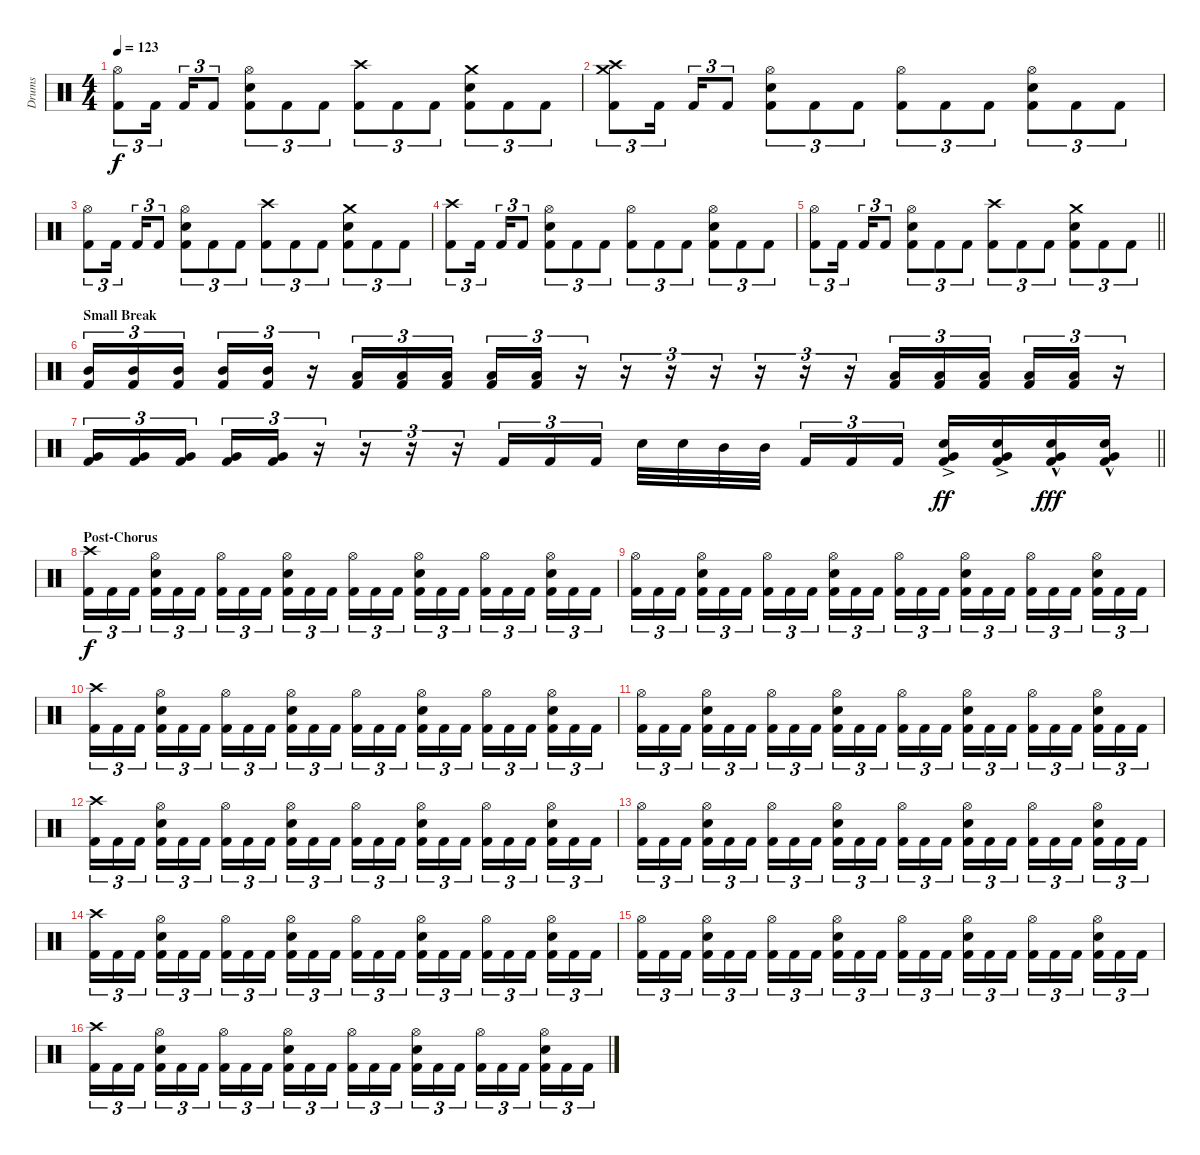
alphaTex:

\track ("Drums" "Drums") {instrument percussion}
\staff {score}
\articulation defaults
\ts (4 4)
\tempo 123
\clef neutral
\ks c
("Hi-Hat (open)" "Kick (hit) 2").8{tu (3 2) dy f} "Kick (hit) 2".16{tu (3 2) beam splitsecondary} "Kick (hit) 2".16{tu (3 2)} "Kick (hit) 2".8{tu (3 2)} ("Hi-Hat (open)" "Snare (hit) 2" "Kick (hit) 2").8{tu (3 2)} "Kick (hit) 2".8{tu (3 2)} "Kick (hit) 2".8{tu (3 2)} ("Crash high (hit)" "Kick (hit) 2").8{tu (3 2)} "Kick (hit) 2".8{tu (3 2)} "Kick (hit) 2".8{tu (3 2)} ("Crash medium (hit)" "Snare (hit) 2" "Kick (hit) 2").8{tu (3 2)} "Kick (hit) 2".8{tu (3 2)} "Kick (hit) 2".8{tu (3 2)} |
("Crash high (hit)" "Crash medium (hit)" "Kick (hit) 2").8{tu (3 2)} "Kick (hit) 2".16{tu (3 2) beam splitsecondary} "Kick (hit) 2".16{tu (3 2)} "Kick (hit) 2".8{tu (3 2)} ("Hi-Hat (open)" "Snare (hit) 2" "Kick (hit) 2").8{tu (3 2)} "Kick (hit) 2".8{tu (3 2)} "Kick (hit) 2".8{tu (3 2)} ("Hi-Hat (open)" "Kick (hit) 2").8{tu (3 2)} "Kick (hit) 2".8{tu (3 2)} "Kick (hit) 2".8{tu (3 2)} ("Hi-Hat (open)" "Snare (hit) 2" "Kick (hit) 2").8{tu (3 2)} "Kick (hit) 2".8{tu (3 2)} "Kick (hit) 2".8{tu (3 2)} |
("Hi-Hat (open)" "Kick (hit) 2").8{tu (3 2)} "Kick (hit) 2".16{tu (3 2) beam splitsecondary} "Kick (hit) 2".16{tu (3 2)} "Kick (hit) 2".8{tu (3 2)} ("Hi-Hat (open)" "Snare (hit) 2" "Kick (hit) 2").8{tu (3 2)} "Kick (hit) 2".8{tu (3 2)} "Kick (hit) 2".8{tu (3 2)} ("Crash high (hit)" "Kick (hit) 2").8{tu (3 2)} "Kick (hit) 2".8{tu (3 2)} "Kick (hit) 2".8{tu (3 2)} ("Crash medium (hit)" "Snare (hit) 2" "Kick (hit) 2").8{tu (3 2)} "Kick (hit) 2".8{tu (3 2)} "Kick (hit) 2".8{tu (3 2)} |
("Crash high (hit)" "Kick (hit) 2").8{tu (3 2)} "Kick (hit) 2".16{tu (3 2) beam splitsecondary} "Kick (hit) 2".16{tu (3 2)} "Kick (hit) 2".8{tu (3 2)} ("Hi-Hat (open)" "Snare (hit) 2" "Kick (hit) 2").8{tu (3 2)} "Kick (hit) 2".8{tu (3 2)} "Kick (hit) 2".8{tu (3 2)} ("Hi-Hat (open)" "Kick (hit) 2").8{tu (3 2)} "Kick (hit) 2".8{tu (3 2)} "Kick (hit) 2".8{tu (3 2)} ("Hi-Hat (open)" "Snare (hit) 2" "Kick (hit) 2").8{tu (3 2)} "Kick (hit) 2".8{tu (3 2)} "Kick (hit) 2".8{tu (3 2)} |
\barLineRight lightlight
("Hi-Hat (open)" "Kick (hit) 2").8{tu (3 2)} "Kick (hit) 2".16{tu (3 2) beam splitsecondary} "Kick (hit) 2".16{tu (3 2)} "Kick (hit) 2".8{tu (3 2)} ("Hi-Hat (open)" "Snare (hit) 2" "Kick (hit) 2").8{tu (3 2)} "Kick (hit) 2".8{tu (3 2)} "Kick (hit) 2".8{tu (3 2)} ("Crash high (hit)" "Kick (hit) 2").8{tu (3 2)} "Kick (hit) 2".8{tu (3 2)} "Kick (hit) 2".8{tu (3 2)} ("Crash medium (hit)" "Snare (hit) 2" "Kick (hit) 2").8{tu (3 2)} "Kick (hit) 2".8{tu (3 2)} "Kick (hit) 2".8{tu (3 2)} |
\section ("" "Small Break")
("Mid Tom (hit)" "Kick (hit) 2").16{tu (3 2)} ("Mid Tom (hit)" "Kick (hit) 2").16{tu (3 2)} ("Mid Tom (hit)" "Kick (hit) 2").16{tu (3 2) beam splitsecondary} ("Mid Tom (hit)" "Kick (hit) 2").16{tu (3 2)} ("Mid Tom (hit)" "Kick (hit) 2").16{tu (3 2)} r.16{tu (3 2)} ("Low Tom (hit)" "Kick (hit) 2").16{tu (3 2)} ("Low Tom (hit)" "Kick (hit) 2").16{tu (3 2)} ("Low Tom (hit)" "Kick (hit) 2").16{tu (3 2) beam splitsecondary} ("Low Tom (hit)" "Kick (hit) 2").16{tu (3 2)} ("Low Tom (hit)" "Kick (hit) 2").16{tu (3 2)} r.16{tu (3 2)} r.16{tu (3 2)} r.16{tu (3 2)} r.16{tu (3 2)} r.16{tu (3 2)} r.16{tu (3 2)} r.16{tu (3 2)} ("Low Tom (hit)" "Kick (hit) 2").16{tu (3 2)} ("Low Tom (hit)" "Kick (hit) 2").16{tu (3 2)} ("Low Tom (hit)" "Kick (hit) 2").16{tu (3 2) beam splitsecondary} ("Low Tom (hit)" "Kick (hit) 2").16{tu (3 2)} ("Low Tom (hit)" "Kick (hit) 2").16{tu (3 2)} r.16{tu (3 2)} |
\barLineRight lightlight
("Very Low Tom (hit)" "Kick (hit) 2").16{tu (3 2)} ("Very Low Tom (hit)" "Kick (hit) 2").16{tu (3 2)} ("Very Low Tom (hit)" "Kick (hit) 2").16{tu (3 2) beam splitsecondary} ("Very Low Tom (hit)" "Kick (hit) 2").16{tu (3 2)} ("Very Low Tom (hit)" "Kick (hit) 2").16{tu (3 2)} r.16{tu (3 2)} r.16{tu (3 2)} r.16{tu (3 2)} r.16{tu (3 2)} "Kick (hit) 2".16{tu (3 2)} "Kick (hit) 2".16{tu (3 2)} "Kick (hit) 2".16{tu (3 2)} "Snare (hit) 2".32 "Snare (hit) 2".32 "Mid Tom (hit)".32 "Mid Tom (hit)".32{beam splitsecondary} "Kick (hit) 2".16{tu (3 2)} "Kick (hit) 2".16{tu (3 2)} "Kick (hit) 2".16{tu (3 2)} ("Very Low Tom (hit)"{ac} "Snare (hit) 2"{ac} "Kick (hit) 2").16{dy ff} ("Very Low Tom (hit)"{ac} "Snare (hit) 2"{ac} "Kick (hit) 2").16 ("Very Low Tom (hit)"{hac} "Snare (hit) 2"{hac} "Kick (hit) 2").16{dy fff} ("Very Low Tom (hit)"{hac} "Snare (hit) 2"{hac} "Kick (hit) 2").16 |
\section ("" "Post-Chorus")
("Crash high (hit)" "Kick (hit) 2").16{tu (3 2) dy f} "Kick (hit) 2".16{tu (3 2)} "Kick (hit) 2".16{tu (3 2) beam splitsecondary} ("Hi-Hat (open)" "Snare (hit) 2" "Kick (hit) 2").16{tu (3 2)} "Kick (hit) 2".16{tu (3 2)} "Kick (hit) 2".16{tu (3 2)} ("Hi-Hat (open)" "Kick (hit) 2").16{tu (3 2)} "Kick (hit) 2".16{tu (3 2)} "Kick (hit) 2".16{tu (3 2) beam splitsecondary} ("Hi-Hat (open)" "Snare (hit) 2" "Kick (hit) 2").16{tu (3 2)} "Kick (hit) 2".16{tu (3 2)} "Kick (hit) 2".16{tu (3 2)} ("Hi-Hat (open)" "Kick (hit) 2").16{tu (3 2)} "Kick (hit) 2".16{tu (3 2)} "Kick (hit) 2".16{tu (3 2) beam splitsecondary} ("Hi-Hat (open)" "Snare (hit) 2" "Kick (hit) 2").16{tu (3 2)} "Kick (hit) 2".16{tu (3 2)} "Kick (hit) 2".16{tu (3 2)} ("Hi-Hat (open)" "Kick (hit) 2").16{tu (3 2)} "Kick (hit) 2".16{tu (3 2)} "Kick (hit) 2".16{tu (3 2) beam splitsecondary} ("Hi-Hat (open)" "Snare (hit) 2" "Kick (hit) 2").16{tu (3 2)} "Kick (hit) 2".16{tu (3 2)} "Kick (hit) 2".16{tu (3 2)} |
("Hi-Hat (open)" "Kick (hit) 2").16{tu (3 2)} "Kick (hit) 2".16{tu (3 2)} "Kick (hit) 2".16{tu (3 2) beam splitsecondary} ("Hi-Hat (open)" "Snare (hit) 2" "Kick (hit) 2").16{tu (3 2)} "Kick (hit) 2".16{tu (3 2)} "Kick (hit) 2".16{tu (3 2)} ("Hi-Hat (open)" "Kick (hit) 2").16{tu (3 2)} "Kick (hit) 2".16{tu (3 2)} "Kick (hit) 2".16{tu (3 2) beam splitsecondary} ("Hi-Hat (open)" "Snare (hit) 2" "Kick (hit) 2").16{tu (3 2)} "Kick (hit) 2".16{tu (3 2)} "Kick (hit) 2".16{tu (3 2)} ("Hi-Hat (open)" "Kick (hit) 2").16{tu (3 2)} "Kick (hit) 2".16{tu (3 2)} "Kick (hit) 2".16{tu (3 2) beam splitsecondary} ("Hi-Hat (open)" "Snare (hit) 2" "Kick (hit) 2").16{tu (3 2)} "Kick (hit) 2".16{tu (3 2)} "Kick (hit) 2".16{tu (3 2)} ("Hi-Hat (open)" "Kick (hit) 2").16{tu (3 2)} "Kick (hit) 2".16{tu (3 2)} "Kick (hit) 2".16{tu (3 2) beam splitsecondary} ("Hi-Hat (open)" "Snare (hit) 2" "Kick (hit) 2").16{tu (3 2)} "Kick (hit) 2".16{tu (3 2)} "Kick (hit) 2".16{tu (3 2)} |
("Crash high (hit)" "Kick (hit) 2").16{tu (3 2)} "Kick (hit) 2".16{tu (3 2)} "Kick (hit) 2".16{tu (3 2) beam splitsecondary} ("Hi-Hat (open)" "Snare (hit) 2" "Kick (hit) 2").16{tu (3 2)} "Kick (hit) 2".16{tu (3 2)} "Kick (hit) 2".16{tu (3 2)} ("Hi-Hat (open)" "Kick (hit) 2").16{tu (3 2)} "Kick (hit) 2".16{tu (3 2)} "Kick (hit) 2".16{tu (3 2) beam splitsecondary} ("Hi-Hat (open)" "Snare (hit) 2" "Kick (hit) 2").16{tu (3 2)} "Kick (hit) 2".16{tu (3 2)} "Kick (hit) 2".16{tu (3 2)} ("Hi-Hat (open)" "Kick (hit) 2").16{tu (3 2)} "Kick (hit) 2".16{tu (3 2)} "Kick (hit) 2".16{tu (3 2) beam splitsecondary} ("Hi-Hat (open)" "Snare (hit) 2" "Kick (hit) 2").16{tu (3 2)} "Kick (hit) 2".16{tu (3 2)} "Kick (hit) 2".16{tu (3 2)} ("Hi-Hat (open)" "Kick (hit) 2").16{tu (3 2)} "Kick (hit) 2".16{tu (3 2)} "Kick (hit) 2".16{tu (3 2) beam splitsecondary} ("Hi-Hat (open)" "Snare (hit) 2" "Kick (hit) 2").16{tu (3 2)} "Kick (hit) 2".16{tu (3 2)} "Kick (hit) 2".16{tu (3 2)} |
("Hi-Hat (open)" "Kick (hit) 2").16{tu (3 2)} "Kick (hit) 2".16{tu (3 2)} "Kick (hit) 2".16{tu (3 2) beam splitsecondary} ("Hi-Hat (open)" "Snare (hit) 2" "Kick (hit) 2").16{tu (3 2)} "Kick (hit) 2".16{tu (3 2)} "Kick (hit) 2".16{tu (3 2)} ("Hi-Hat (open)" "Kick (hit) 2").16{tu (3 2)} "Kick (hit) 2".16{tu (3 2)} "Kick (hit) 2".16{tu (3 2) beam splitsecondary} ("Hi-Hat (open)" "Snare (hit) 2" "Kick (hit) 2").16{tu (3 2)} "Kick (hit) 2".16{tu (3 2)} "Kick (hit) 2".16{tu (3 2)} ("Hi-Hat (open)" "Kick (hit) 2").16{tu (3 2)} "Kick (hit) 2".16{tu (3 2)} "Kick (hit) 2".16{tu (3 2) beam splitsecondary} ("Hi-Hat (open)" "Snare (hit) 2" "Kick (hit) 2").16{tu (3 2)} "Kick (hit) 2".16{tu (3 2)} "Kick (hit) 2".16{tu (3 2)} ("Hi-Hat (open)" "Kick (hit) 2").16{tu (3 2)} "Kick (hit) 2".16{tu (3 2)} "Kick (hit) 2".16{tu (3 2) beam splitsecondary} ("Hi-Hat (open)" "Snare (hit) 2" "Kick (hit) 2").16{tu (3 2)} "Kick (hit) 2".16{tu (3 2)} "Kick (hit) 2".16{tu (3 2)} |
("Crash high (hit)" "Kick (hit) 2").16{tu (3 2)} "Kick (hit) 2".16{tu (3 2)} "Kick (hit) 2".16{tu (3 2) beam splitsecondary} ("Hi-Hat (open)" "Snare (hit) 2" "Kick (hit) 2").16{tu (3 2)} "Kick (hit) 2".16{tu (3 2)} "Kick (hit) 2".16{tu (3 2)} ("Hi-Hat (open)" "Kick (hit) 2").16{tu (3 2)} "Kick (hit) 2".16{tu (3 2)} "Kick (hit) 2".16{tu (3 2) beam splitsecondary} ("Hi-Hat (open)" "Snare (hit) 2" "Kick (hit) 2").16{tu (3 2)} "Kick (hit) 2".16{tu (3 2)} "Kick (hit) 2".16{tu (3 2)} ("Hi-Hat (open)" "Kick (hit) 2").16{tu (3 2)} "Kick (hit) 2".16{tu (3 2)} "Kick (hit) 2".16{tu (3 2) beam splitsecondary} ("Hi-Hat (open)" "Snare (hit) 2" "Kick (hit) 2").16{tu (3 2)} "Kick (hit) 2".16{tu (3 2)} "Kick (hit) 2".16{tu (3 2)} ("Hi-Hat (open)" "Kick (hit) 2").16{tu (3 2)} "Kick (hit) 2".16{tu (3 2)} "Kick (hit) 2".16{tu (3 2) beam splitsecondary} ("Hi-Hat (open)" "Snare (hit) 2" "Kick (hit) 2").16{tu (3 2)} "Kick (hit) 2".16{tu (3 2)} "Kick (hit) 2".16{tu (3 2)} |
("Hi-Hat (open)" "Kick (hit) 2").16{tu (3 2)} "Kick (hit) 2".16{tu (3 2)} "Kick (hit) 2".16{tu (3 2) beam splitsecondary} ("Hi-Hat (open)" "Snare (hit) 2" "Kick (hit) 2").16{tu (3 2)} "Kick (hit) 2".16{tu (3 2)} "Kick (hit) 2".16{tu (3 2)} ("Hi-Hat (open)" "Kick (hit) 2").16{tu (3 2)} "Kick (hit) 2".16{tu (3 2)} "Kick (hit) 2".16{tu (3 2) beam splitsecondary} ("Hi-Hat (open)" "Snare (hit) 2" "Kick (hit) 2").16{tu (3 2)} "Kick (hit) 2".16{tu (3 2)} "Kick (hit) 2".16{tu (3 2)} ("Hi-Hat (open)" "Kick (hit) 2").16{tu (3 2)} "Kick (hit) 2".16{tu (3 2)} "Kick (hit) 2".16{tu (3 2) beam splitsecondary} ("Hi-Hat (open)" "Snare (hit) 2" "Kick (hit) 2").16{tu (3 2)} "Kick (hit) 2".16{tu (3 2)} "Kick (hit) 2".16{tu (3 2)} ("Hi-Hat (open)" "Kick (hit) 2").16{tu (3 2)} "Kick (hit) 2".16{tu (3 2)} "Kick (hit) 2".16{tu (3 2) beam splitsecondary} ("Hi-Hat (open)" "Snare (hit) 2" "Kick (hit) 2").16{tu (3 2)} "Kick (hit) 2".16{tu (3 2)} "Kick (hit) 2".16{tu (3 2)} |
("Crash high (hit)" "Kick (hit) 2").16{tu (3 2)} "Kick (hit) 2".16{tu (3 2)} "Kick (hit) 2".16{tu (3 2) beam splitsecondary} ("Hi-Hat (open)" "Snare (hit) 2" "Kick (hit) 2").16{tu (3 2)} "Kick (hit) 2".16{tu (3 2)} "Kick (hit) 2".16{tu (3 2)} ("Hi-Hat (open)" "Kick (hit) 2").16{tu (3 2)} "Kick (hit) 2".16{tu (3 2)} "Kick (hit) 2".16{tu (3 2) beam splitsecondary} ("Hi-Hat (open)" "Snare (hit) 2" "Kick (hit) 2").16{tu (3 2)} "Kick (hit) 2".16{tu (3 2)} "Kick (hit) 2".16{tu (3 2)} ("Hi-Hat (open)" "Kick (hit) 2").16{tu (3 2)} "Kick (hit) 2".16{tu (3 2)} "Kick (hit) 2".16{tu (3 2) beam splitsecondary} ("Hi-Hat (open)" "Snare (hit) 2" "Kick (hit) 2").16{tu (3 2)} "Kick (hit) 2".16{tu (3 2)} "Kick (hit) 2".16{tu (3 2)} ("Hi-Hat (open)" "Kick (hit) 2").16{tu (3 2)} "Kick (hit) 2".16{tu (3 2)} "Kick (hit) 2".16{tu (3 2) beam splitsecondary} ("Hi-Hat (open)" "Snare (hit) 2" "Kick (hit) 2").16{tu (3 2)} "Kick (hit) 2".16{tu (3 2)} "Kick (hit) 2".16{tu (3 2)} |
("Hi-Hat (open)" "Kick (hit) 2").16{tu (3 2)} "Kick (hit) 2".16{tu (3 2)} "Kick (hit) 2".16{tu (3 2) beam splitsecondary} ("Hi-Hat (open)" "Snare (hit) 2" "Kick (hit) 2").16{tu (3 2)} "Kick (hit) 2".16{tu (3 2)} "Kick (hit) 2".16{tu (3 2)} ("Hi-Hat (open)" "Kick (hit) 2").16{tu (3 2)} "Kick (hit) 2".16{tu (3 2)} "Kick (hit) 2".16{tu (3 2) beam splitsecondary} ("Hi-Hat (open)" "Snare (hit) 2" "Kick (hit) 2").16{tu (3 2)} "Kick (hit) 2".16{tu (3 2)} "Kick (hit) 2".16{tu (3 2)} ("Hi-Hat (open)" "Kick (hit) 2").16{tu (3 2)} "Kick (hit) 2".16{tu (3 2)} "Kick (hit) 2".16{tu (3 2) beam splitsecondary} ("Hi-Hat (open)" "Snare (hit) 2" "Kick (hit) 2").16{tu (3 2)} "Kick (hit) 2".16{tu (3 2)} "Kick (hit) 2".16{tu (3 2)} ("Hi-Hat (open)" "Kick (hit) 2").16{tu (3 2)} "Kick (hit) 2".16{tu (3 2)} "Kick (hit) 2".16{tu (3 2) beam splitsecondary} ("Hi-Hat (open)" "Snare (hit) 2" "Kick (hit) 2").16{tu (3 2)} "Kick (hit) 2".16{tu (3 2)} "Kick (hit) 2".16{tu (3 2)} |
("Crash high (hit)" "Kick (hit) 2").16{tu (3 2)} "Kick (hit) 2".16{tu (3 2)} "Kick (hit) 2".16{tu (3 2) beam splitsecondary} ("Hi-Hat (open)" "Snare (hit) 2" "Kick (hit) 2").16{tu (3 2)} "Kick (hit) 2".16{tu (3 2)} "Kick (hit) 2".16{tu (3 2)} ("Hi-Hat (open)" "Kick (hit) 2").16{tu (3 2)} "Kick (hit) 2".16{tu (3 2)} "Kick (hit) 2".16{tu (3 2) beam splitsecondary} ("Hi-Hat (open)" "Snare (hit) 2" "Kick (hit) 2").16{tu (3 2)} "Kick (hit) 2".16{tu (3 2)} "Kick (hit) 2".16{tu (3 2)} ("Hi-Hat (open)" "Kick (hit) 2").16{tu (3 2)} "Kick (hit) 2".16{tu (3 2)} "Kick (hit) 2".16{tu (3 2) beam splitsecondary} ("Hi-Hat (open)" "Snare (hit) 2" "Kick (hit) 2").16{tu (3 2)} "Kick (hit) 2".16{tu (3 2)} "Kick (hit) 2".16{tu (3 2)} ("Hi-Hat (open)" "Kick (hit) 2").16{tu (3 2)} "Kick (hit) 2".16{tu (3 2)} "Kick (hit) 2".16{tu (3 2) beam splitsecondary} ("Hi-Hat (open)" "Snare (hit) 2" "Kick (hit) 2").16{tu (3 2)} "Kick (hit) 2".16{tu (3 2)} "Kick (hit) 2".16{tu (3 2)}
